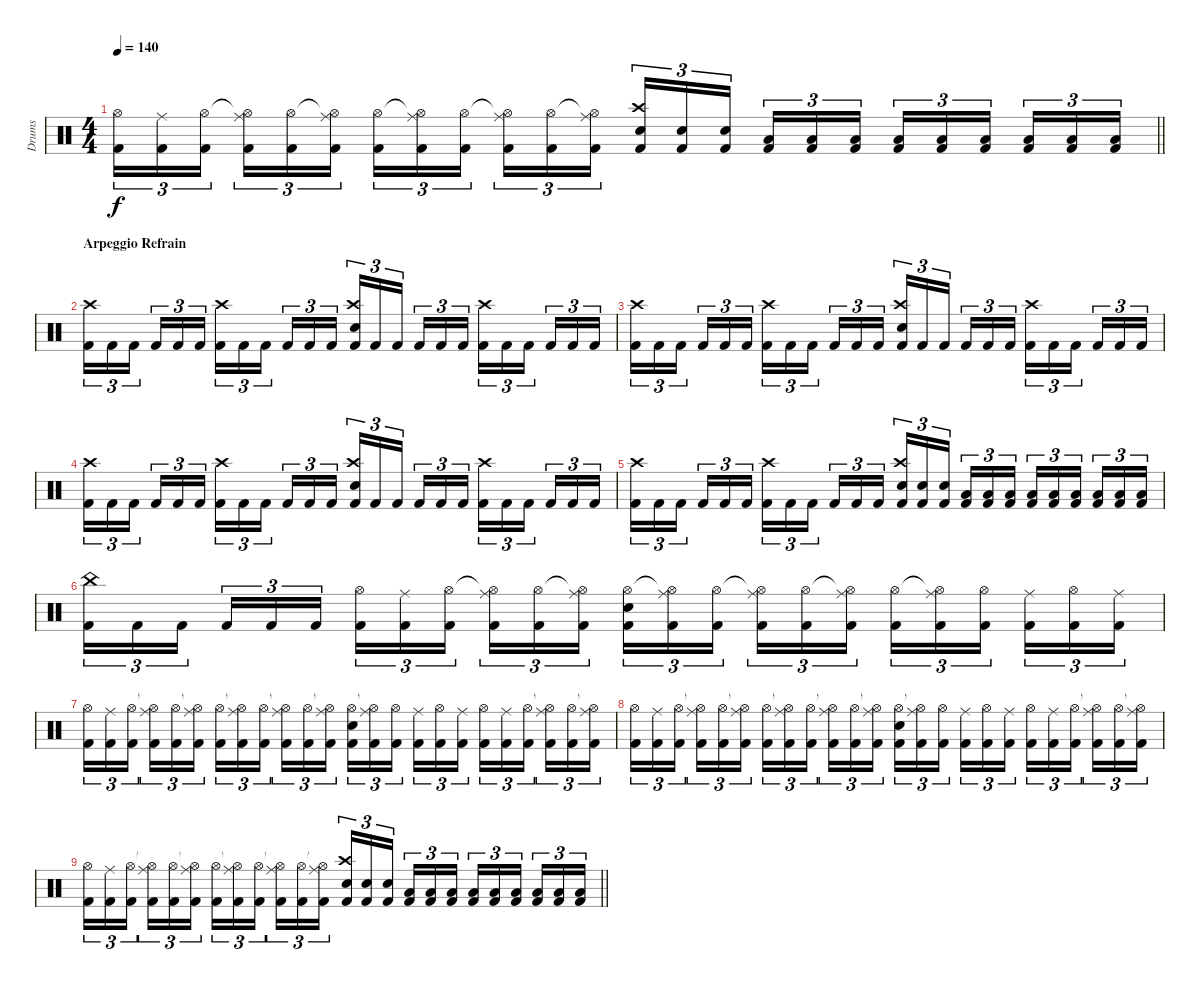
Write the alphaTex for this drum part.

\track ("Drums" "Drums") {instrument percussion}
\staff {score}
\articulation defaults
\ts (4 4)
\tempo 140
\clef neutral
\barLineRight lightlight
\ks c
("Hi-Hat (open)" "Kick (hit) 2").16{tu (3 2) dy f} ("Ride (middle)" "Kick (hit) 2").16{tu (3 2)} ("Hi-Hat (open)" "Kick (hit) 2").16{tu (3 2) beam splitsecondary} ("Hi-Hat (open)"{t} "Ride (middle)" "Kick (hit) 2").16{tu (3 2)} ("Hi-Hat (open)" "Kick (hit) 2").16{tu (3 2)} ("Hi-Hat (open)"{t} "Ride (middle)" "Kick (hit) 2").16{tu (3 2)} ("Hi-Hat (open)" "Kick (hit) 2").16{tu (3 2)} ("Hi-Hat (open)"{t} "Ride (middle)" "Kick (hit) 2").16{tu (3 2)} ("Hi-Hat (open)" "Kick (hit) 2").16{tu (3 2) beam splitsecondary} ("Hi-Hat (open)"{t} "Ride (middle)" "Kick (hit) 2").16{tu (3 2)} ("Hi-Hat (open)" "Kick (hit) 2").16{tu (3 2)} ("Hi-Hat (open)"{t} "Ride (middle)" "Kick (hit) 2").16{tu (3 2)} ("Crash high (hit)" "Snare (hit) 2" "Kick (hit) 2").16{tu (3 2)} ("Snare (hit) 2" "Kick (hit) 2").16{tu (3 2)} ("Snare (hit) 2" "Kick (hit) 2").16{tu (3 2) beam splitsecondary} ("Low Floor Tom (hit)" "Kick (hit) 2").16{tu (3 2)} ("Low Floor Tom (hit)" "Kick (hit) 2").16{tu (3 2)} ("Low Floor Tom (hit)" "Kick (hit) 2").16{tu (3 2)} ("Low Tom (hit)" "Kick (hit) 2").16{tu (3 2)} ("Low Tom (hit)" "Kick (hit) 2").16{tu (3 2)} ("Low Tom (hit)" "Kick (hit) 2").16{tu (3 2) beam splitsecondary} ("Low Floor Tom (hit)" "Kick (hit) 2").16{tu (3 2)} ("Low Floor Tom (hit)" "Kick (hit) 2").16{tu (3 2)} ("Low Floor Tom (hit)" "Kick (hit) 2").16{tu (3 2)} |
\section ("" "Arpeggio Refrain")
("Crash high (hit)" "Kick (hit) 2").16{tu (3 2)} "Kick (hit) 2".16{tu (3 2)} "Kick (hit) 2".16{tu (3 2) beam splitsecondary} "Kick (hit) 2".16{tu (3 2)} "Kick (hit) 2".16{tu (3 2)} "Kick (hit) 2".16{tu (3 2)} ("Crash high (hit)" "Kick (hit) 2").16{tu (3 2)} "Kick (hit) 2".16{tu (3 2)} "Kick (hit) 2".16{tu (3 2) beam splitsecondary} "Kick (hit) 2".16{tu (3 2)} "Kick (hit) 2".16{tu (3 2)} "Kick (hit) 2".16{tu (3 2)} ("Crash high (hit)" "Snare (hit) 2" "Kick (hit) 2").16{tu (3 2)} "Kick (hit) 2".16{tu (3 2)} "Kick (hit) 2".16{tu (3 2) beam splitsecondary} "Kick (hit) 2".16{tu (3 2)} "Kick (hit) 2".16{tu (3 2)} "Kick (hit) 2".16{tu (3 2)} ("Crash high (hit)" "Kick (hit) 2").16{tu (3 2)} "Kick (hit) 2".16{tu (3 2)} "Kick (hit) 2".16{tu (3 2) beam splitsecondary} "Kick (hit) 2".16{tu (3 2)} "Kick (hit) 2".16{tu (3 2)} "Kick (hit) 2".16{tu (3 2)} |
("Crash high (hit)" "Kick (hit) 2").16{tu (3 2)} "Kick (hit) 2".16{tu (3 2)} "Kick (hit) 2".16{tu (3 2) beam splitsecondary} "Kick (hit) 2".16{tu (3 2)} "Kick (hit) 2".16{tu (3 2)} "Kick (hit) 2".16{tu (3 2)} ("Crash high (hit)" "Kick (hit) 2").16{tu (3 2)} "Kick (hit) 2".16{tu (3 2)} "Kick (hit) 2".16{tu (3 2) beam splitsecondary} "Kick (hit) 2".16{tu (3 2)} "Kick (hit) 2".16{tu (3 2)} "Kick (hit) 2".16{tu (3 2)} ("Crash high (hit)" "Snare (hit) 2" "Kick (hit) 2").16{tu (3 2)} "Kick (hit) 2".16{tu (3 2)} "Kick (hit) 2".16{tu (3 2) beam splitsecondary} "Kick (hit) 2".16{tu (3 2)} "Kick (hit) 2".16{tu (3 2)} "Kick (hit) 2".16{tu (3 2)} ("Crash high (hit)" "Kick (hit) 2").16{tu (3 2)} "Kick (hit) 2".16{tu (3 2)} "Kick (hit) 2".16{tu (3 2) beam splitsecondary} "Kick (hit) 2".16{tu (3 2)} "Kick (hit) 2".16{tu (3 2)} "Kick (hit) 2".16{tu (3 2)} |
("Crash high (hit)" "Kick (hit) 2").16{tu (3 2)} "Kick (hit) 2".16{tu (3 2)} "Kick (hit) 2".16{tu (3 2) beam splitsecondary} "Kick (hit) 2".16{tu (3 2)} "Kick (hit) 2".16{tu (3 2)} "Kick (hit) 2".16{tu (3 2)} ("Crash high (hit)" "Kick (hit) 2").16{tu (3 2)} "Kick (hit) 2".16{tu (3 2)} "Kick (hit) 2".16{tu (3 2) beam splitsecondary} "Kick (hit) 2".16{tu (3 2)} "Kick (hit) 2".16{tu (3 2)} "Kick (hit) 2".16{tu (3 2)} ("Crash high (hit)" "Snare (hit) 2" "Kick (hit) 2").16{tu (3 2)} "Kick (hit) 2".16{tu (3 2)} "Kick (hit) 2".16{tu (3 2) beam splitsecondary} "Kick (hit) 2".16{tu (3 2)} "Kick (hit) 2".16{tu (3 2)} "Kick (hit) 2".16{tu (3 2)} ("Crash high (hit)" "Kick (hit) 2").16{tu (3 2)} "Kick (hit) 2".16{tu (3 2)} "Kick (hit) 2".16{tu (3 2) beam splitsecondary} "Kick (hit) 2".16{tu (3 2)} "Kick (hit) 2".16{tu (3 2)} "Kick (hit) 2".16{tu (3 2)} |
("Crash high (hit)" "Kick (hit) 2").16{tu (3 2)} "Kick (hit) 2".16{tu (3 2)} "Kick (hit) 2".16{tu (3 2) beam splitsecondary} "Kick (hit) 2".16{tu (3 2)} "Kick (hit) 2".16{tu (3 2)} "Kick (hit) 2".16{tu (3 2)} ("Crash high (hit)" "Kick (hit) 2").16{tu (3 2)} "Kick (hit) 2".16{tu (3 2)} "Kick (hit) 2".16{tu (3 2) beam splitsecondary} "Kick (hit) 2".16{tu (3 2)} "Kick (hit) 2".16{tu (3 2)} "Kick (hit) 2".16{tu (3 2)} ("Crash high (hit)" "Snare (hit) 2" "Kick (hit) 2").16{tu (3 2)} ("Snare (hit) 2" "Kick (hit) 2").16{tu (3 2)} ("Snare (hit) 2" "Kick (hit) 2").16{tu (3 2) beam splitsecondary} ("Low Floor Tom (hit)" "Kick (hit) 2").16{tu (3 2)} ("Low Floor Tom (hit)" "Kick (hit) 2").16{tu (3 2)} ("Low Floor Tom (hit)" "Kick (hit) 2").16{tu (3 2)} ("Low Tom (hit)" "Kick (hit) 2").16{tu (3 2)} ("Low Tom (hit)" "Kick (hit) 2").16{tu (3 2)} ("Low Tom (hit)" "Kick (hit) 2").16{tu (3 2) beam splitsecondary} ("Low Floor Tom (hit)" "Kick (hit) 2").16{tu (3 2)} ("Low Floor Tom (hit)" "Kick (hit) 2").16{tu (3 2)} ("Low Floor Tom (hit)" "Kick (hit) 2").16{tu (3 2)} |
("China (hit)" "Kick (hit) 2").16{tu (3 2)} "Kick (hit) 2".16{tu (3 2)} "Kick (hit) 2".16{tu (3 2) beam splitsecondary} "Kick (hit) 2".16{tu (3 2)} "Kick (hit) 2".16{tu (3 2)} "Kick (hit) 2".16{tu (3 2)} ("Hi-Hat (open)" "Kick (hit) 2").16{tu (3 2)} ("Ride (middle)" "Kick (hit) 2").16{tu (3 2)} ("Hi-Hat (open)" "Kick (hit) 2").16{tu (3 2) beam splitsecondary} ("Hi-Hat (open)"{t} "Ride (middle)" "Kick (hit) 2").16{tu (3 2)} ("Hi-Hat (open)" "Kick (hit) 2").16{tu (3 2)} ("Hi-Hat (open)"{t} "Ride (middle)" "Kick (hit) 2").16{tu (3 2)} ("Hi-Hat (open)" "Snare (hit) 2" "Kick (hit) 2").16{tu (3 2)} ("Hi-Hat (open)"{t} "Ride (middle)" "Kick (hit) 2").16{tu (3 2)} ("Hi-Hat (open)" "Kick (hit) 2").16{tu (3 2) beam splitsecondary} ("Hi-Hat (open)"{t} "Ride (middle)" "Kick (hit) 2").16{tu (3 2)} ("Hi-Hat (open)" "Kick (hit) 2").16{tu (3 2)} ("Hi-Hat (open)"{t} "Ride (middle)" "Kick (hit) 2").16{tu (3 2)} ("Hi-Hat (open)" "Kick (hit) 2").16{tu (3 2)} ("Hi-Hat (open)"{t} "Ride (middle)" "Kick (hit) 2").16{tu (3 2)} ("Hi-Hat (open)" "Kick (hit) 2").16{tu (3 2) beam splitsecondary} ("Ride (middle)" "Kick (hit) 2").16{tu (3 2)} ("Hi-Hat (open)" "Kick (hit) 2").16{tu (3 2)} ("Ride (middle)" "Kick (hit) 2").16{tu (3 2)} |
("Hi-Hat (open)" "Kick (hit) 2").16{tu (3 2)} ("Ride (middle)" "Kick (hit) 2").16{tu (3 2)} ("Hi-Hat (open)" "Kick (hit) 2").16{tu (3 2) beam splitsecondary} ("Hi-Hat (open)"{t} "Ride (middle)" "Kick (hit) 2").16{tu (3 2)} ("Hi-Hat (open)" "Kick (hit) 2").16{tu (3 2)} ("Hi-Hat (open)"{t} "Ride (middle)" "Kick (hit) 2").16{tu (3 2)} ("Hi-Hat (open)" "Kick (hit) 2").16{tu (3 2)} ("Hi-Hat (open)"{t} "Ride (middle)" "Kick (hit) 2").16{tu (3 2)} ("Hi-Hat (open)" "Kick (hit) 2").16{tu (3 2) beam splitsecondary} ("Hi-Hat (open)"{t} "Ride (middle)" "Kick (hit) 2").16{tu (3 2)} ("Hi-Hat (open)" "Kick (hit) 2").16{tu (3 2)} ("Hi-Hat (open)"{t} "Ride (middle)" "Kick (hit) 2").16{tu (3 2)} ("Hi-Hat (open)" "Snare (hit) 2" "Kick (hit) 2").16{tu (3 2)} ("Hi-Hat (open)"{t} "Ride (middle)" "Kick (hit) 2").16{tu (3 2)} ("Hi-Hat (open)" "Kick (hit) 2").16{tu (3 2) beam splitsecondary} ("Ride (middle)" "Kick (hit) 2").16{tu (3 2)} ("Hi-Hat (open)" "Kick (hit) 2").16{tu (3 2)} ("Ride (middle)" "Kick (hit) 2").16{tu (3 2)} ("Hi-Hat (open)" "Kick (hit) 2").16{tu (3 2)} ("Ride (middle)" "Kick (hit) 2").16{tu (3 2)} ("Hi-Hat (open)" "Kick (hit) 2").16{tu (3 2) beam splitsecondary} ("Hi-Hat (open)"{t} "Ride (middle)" "Kick (hit) 2").16{tu (3 2)} ("Hi-Hat (open)" "Kick (hit) 2").16{tu (3 2)} ("Hi-Hat (open)"{t} "Ride (middle)" "Kick (hit) 2").16{tu (3 2)} |
("Hi-Hat (open)" "Kick (hit) 2").16{tu (3 2)} ("Ride (middle)" "Kick (hit) 2").16{tu (3 2)} ("Hi-Hat (open)" "Kick (hit) 2").16{tu (3 2) beam splitsecondary} ("Hi-Hat (open)"{t} "Ride (middle)" "Kick (hit) 2").16{tu (3 2)} ("Hi-Hat (open)" "Kick (hit) 2").16{tu (3 2)} ("Hi-Hat (open)"{t} "Ride (middle)" "Kick (hit) 2").16{tu (3 2)} ("Hi-Hat (open)" "Kick (hit) 2").16{tu (3 2)} ("Hi-Hat (open)"{t} "Ride (middle)" "Kick (hit) 2").16{tu (3 2)} ("Hi-Hat (open)" "Kick (hit) 2").16{tu (3 2) beam splitsecondary} ("Hi-Hat (open)"{t} "Ride (middle)" "Kick (hit) 2").16{tu (3 2)} ("Hi-Hat (open)" "Kick (hit) 2").16{tu (3 2)} ("Hi-Hat (open)"{t} "Ride (middle)" "Kick (hit) 2").16{tu (3 2)} ("Hi-Hat (open)" "Snare (hit) 2" "Kick (hit) 2").16{tu (3 2)} ("Hi-Hat (open)"{t} "Ride (middle)" "Kick (hit) 2").16{tu (3 2)} ("Hi-Hat (open)" "Kick (hit) 2").16{tu (3 2) beam splitsecondary} ("Ride (middle)" "Kick (hit) 2").16{tu (3 2)} ("Hi-Hat (open)" "Kick (hit) 2").16{tu (3 2)} ("Ride (middle)" "Kick (hit) 2").16{tu (3 2)} ("Hi-Hat (open)" "Kick (hit) 2").16{tu (3 2)} ("Ride (middle)" "Kick (hit) 2").16{tu (3 2)} ("Hi-Hat (open)" "Kick (hit) 2").16{tu (3 2) beam splitsecondary} ("Hi-Hat (open)"{t} "Ride (middle)" "Kick (hit) 2").16{tu (3 2)} ("Hi-Hat (open)" "Kick (hit) 2").16{tu (3 2)} ("Hi-Hat (open)"{t} "Ride (middle)" "Kick (hit) 2").16{tu (3 2)} |
\barLineRight lightlight
("Hi-Hat (open)" "Kick (hit) 2").16{tu (3 2)} ("Ride (middle)" "Kick (hit) 2").16{tu (3 2)} ("Hi-Hat (open)" "Kick (hit) 2").16{tu (3 2) beam splitsecondary} ("Hi-Hat (open)"{t} "Ride (middle)" "Kick (hit) 2").16{tu (3 2)} ("Hi-Hat (open)" "Kick (hit) 2").16{tu (3 2)} ("Hi-Hat (open)"{t} "Ride (middle)" "Kick (hit) 2").16{tu (3 2)} ("Hi-Hat (open)" "Kick (hit) 2").16{tu (3 2)} ("Hi-Hat (open)"{t} "Ride (middle)" "Kick (hit) 2").16{tu (3 2)} ("Hi-Hat (open)" "Kick (hit) 2").16{tu (3 2) beam splitsecondary} ("Hi-Hat (open)"{t} "Ride (middle)" "Kick (hit) 2").16{tu (3 2)} ("Hi-Hat (open)" "Kick (hit) 2").16{tu (3 2)} ("Hi-Hat (open)"{t} "Ride (middle)" "Kick (hit) 2").16{tu (3 2)} ("Crash high (hit)" "Snare (hit) 2" "Kick (hit) 2").16{tu (3 2)} ("Snare (hit) 2" "Kick (hit) 2").16{tu (3 2)} ("Snare (hit) 2" "Kick (hit) 2").16{tu (3 2) beam splitsecondary} ("Low Floor Tom (hit)" "Kick (hit) 2").16{tu (3 2)} ("Low Floor Tom (hit)" "Kick (hit) 2").16{tu (3 2)} ("Low Floor Tom (hit)" "Kick (hit) 2").16{tu (3 2)} ("Low Tom (hit)" "Kick (hit) 2").16{tu (3 2)} ("Low Tom (hit)" "Kick (hit) 2").16{tu (3 2)} ("Low Tom (hit)" "Kick (hit) 2").16{tu (3 2) beam splitsecondary} ("Low Floor Tom (hit)" "Kick (hit) 2").16{tu (3 2)} ("Low Floor Tom (hit)" "Kick (hit) 2").16{tu (3 2)} ("Low Floor Tom (hit)" "Kick (hit) 2").16{tu (3 2)}
